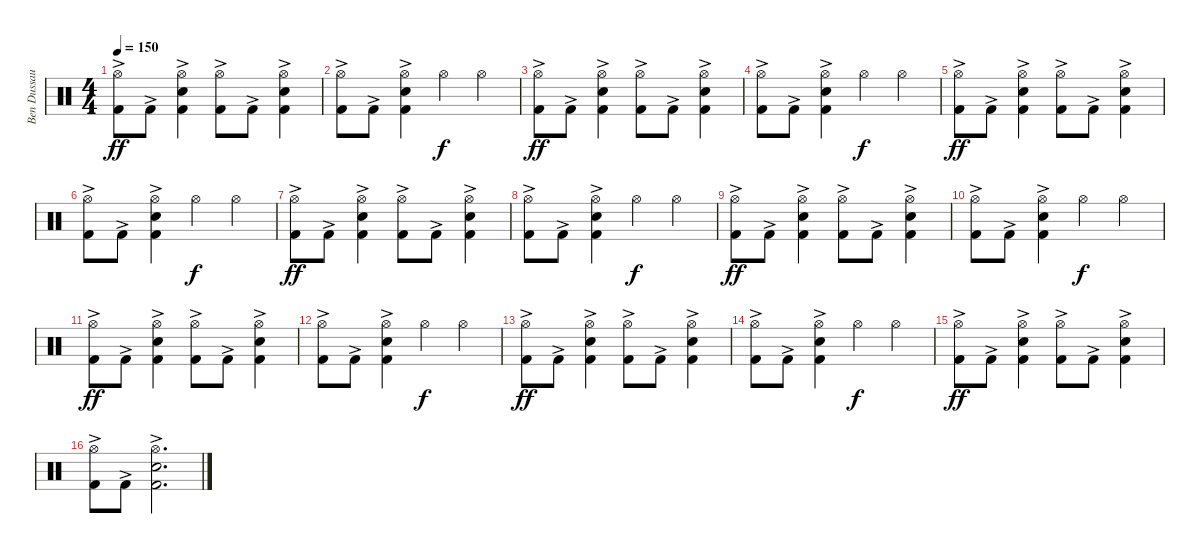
\track ("Ben Dussault" "Ben Dussau") {instrument percussion}
\staff {score}
\articulation defaults
\ts (4 4)
\tempo 150
\clef neutral
\ks c
("Hi-Hat (open)" "Kick (hit) 2"{ac}).8{dy ff} "Kick (hit) 2"{ac}.8 ("Hi-Hat (open)" "Snare (hit) 2" "Kick (hit) 2"{ac}).4 ("Hi-Hat (open)" "Kick (hit) 2"{ac}).8 "Kick (hit) 2"{ac}.8 ("Hi-Hat (open)" "Snare (hit) 2" "Kick (hit) 2"{ac}).4 |
("Hi-Hat (open)" "Kick (hit) 2"{ac}).8 "Kick (hit) 2"{ac}.8 ("Hi-Hat (open)" "Snare (hit) 2" "Kick (hit) 2"{ac}).4 "Hi-Hat (open)".4{dy f} "Hi-Hat (open)".4 |
("Hi-Hat (open)" "Kick (hit) 2"{ac}).8{dy ff} "Kick (hit) 2"{ac}.8 ("Hi-Hat (open)" "Snare (hit) 2" "Kick (hit) 2"{ac}).4 ("Hi-Hat (open)" "Kick (hit) 2"{ac}).8 "Kick (hit) 2"{ac}.8 ("Hi-Hat (open)" "Snare (hit) 2" "Kick (hit) 2"{ac}).4 |
("Hi-Hat (open)" "Kick (hit) 2"{ac}).8 "Kick (hit) 2"{ac}.8 ("Hi-Hat (open)" "Snare (hit) 2" "Kick (hit) 2"{ac}).4 "Hi-Hat (open)".4{dy f} "Hi-Hat (open)".4 |
("Hi-Hat (open)" "Kick (hit) 2"{ac}).8{dy ff} "Kick (hit) 2"{ac}.8 ("Hi-Hat (open)" "Snare (hit) 2" "Kick (hit) 2"{ac}).4 ("Hi-Hat (open)" "Kick (hit) 2"{ac}).8 "Kick (hit) 2"{ac}.8 ("Hi-Hat (open)" "Snare (hit) 2" "Kick (hit) 2"{ac}).4 |
("Hi-Hat (open)" "Kick (hit) 2"{ac}).8 "Kick (hit) 2"{ac}.8 ("Hi-Hat (open)" "Snare (hit) 2" "Kick (hit) 2"{ac}).4 "Hi-Hat (open)".4{dy f} "Hi-Hat (open)".4 |
("Hi-Hat (open)" "Kick (hit) 2"{ac}).8{dy ff} "Kick (hit) 2"{ac}.8 ("Hi-Hat (open)" "Snare (hit) 2" "Kick (hit) 2"{ac}).4 ("Hi-Hat (open)" "Kick (hit) 2"{ac}).8 "Kick (hit) 2"{ac}.8 ("Hi-Hat (open)" "Snare (hit) 2" "Kick (hit) 2"{ac}).4 |
("Hi-Hat (open)" "Kick (hit) 2"{ac}).8 "Kick (hit) 2"{ac}.8 ("Hi-Hat (open)" "Snare (hit) 2" "Kick (hit) 2"{ac}).4 "Hi-Hat (open)".4{dy f} "Hi-Hat (open)".4 |
("Hi-Hat (open)" "Kick (hit) 2"{ac}).8{dy ff} "Kick (hit) 2"{ac}.8 ("Hi-Hat (open)" "Snare (hit) 2" "Kick (hit) 2"{ac}).4 ("Hi-Hat (open)" "Kick (hit) 2"{ac}).8 "Kick (hit) 2"{ac}.8 ("Hi-Hat (open)" "Snare (hit) 2" "Kick (hit) 2"{ac}).4 |
("Hi-Hat (open)" "Kick (hit) 2"{ac}).8 "Kick (hit) 2"{ac}.8 ("Hi-Hat (open)" "Snare (hit) 2" "Kick (hit) 2"{ac}).4 "Hi-Hat (open)".4{dy f} "Hi-Hat (open)".4 |
("Hi-Hat (open)" "Kick (hit) 2"{ac}).8{dy ff} "Kick (hit) 2"{ac}.8 ("Hi-Hat (open)" "Snare (hit) 2" "Kick (hit) 2"{ac}).4 ("Hi-Hat (open)" "Kick (hit) 2"{ac}).8 "Kick (hit) 2"{ac}.8 ("Hi-Hat (open)" "Snare (hit) 2" "Kick (hit) 2"{ac}).4 |
("Hi-Hat (open)" "Kick (hit) 2"{ac}).8 "Kick (hit) 2"{ac}.8 ("Hi-Hat (open)" "Snare (hit) 2" "Kick (hit) 2"{ac}).4 "Hi-Hat (open)".4{dy f} "Hi-Hat (open)".4 |
("Hi-Hat (open)" "Kick (hit) 2"{ac}).8{dy ff} "Kick (hit) 2"{ac}.8 ("Hi-Hat (open)" "Snare (hit) 2" "Kick (hit) 2"{ac}).4 ("Hi-Hat (open)" "Kick (hit) 2"{ac}).8 "Kick (hit) 2"{ac}.8 ("Hi-Hat (open)" "Snare (hit) 2" "Kick (hit) 2"{ac}).4 |
("Hi-Hat (open)" "Kick (hit) 2"{ac}).8 "Kick (hit) 2"{ac}.8 ("Hi-Hat (open)" "Snare (hit) 2" "Kick (hit) 2"{ac}).4 "Hi-Hat (open)".4{dy f} "Hi-Hat (open)".4 |
("Hi-Hat (open)" "Kick (hit) 2"{ac}).8{dy ff} "Kick (hit) 2"{ac}.8 ("Hi-Hat (open)" "Snare (hit) 2" "Kick (hit) 2"{ac}).4 ("Hi-Hat (open)" "Kick (hit) 2"{ac}).8 "Kick (hit) 2"{ac}.8 ("Hi-Hat (open)" "Snare (hit) 2" "Kick (hit) 2"{ac}).4 |
("Hi-Hat (open)" "Kick (hit) 2"{ac}).8 "Kick (hit) 2"{ac}.8 ("Hi-Hat (open)" "Snare (hit) 2" "Kick (hit) 2"{ac}).2{d}
